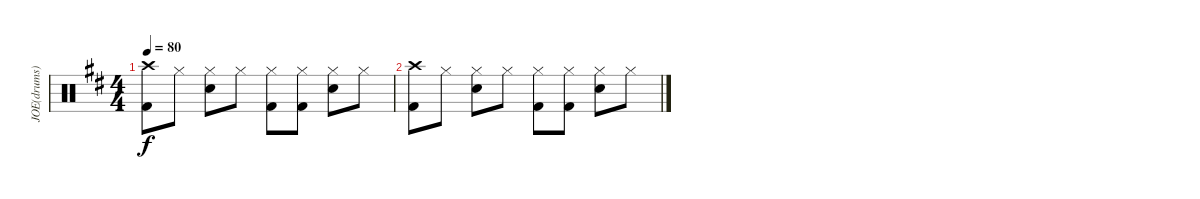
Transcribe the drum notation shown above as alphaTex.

\track ("JOE(drums)" "JOE(drums)") {instrument percussion}
\staff {score}
\articulation defaults
\ts (4 4)
\tempo 80
\clef neutral
\ks d
("Crash high (hit)" "Kick (hit) 2").8{dy f} "Hi-Hat (closed)".8 ("Hi-Hat (closed)" "Snare (hit) 2").8 "Hi-Hat (closed)".8 ("Hi-Hat (closed)" "Kick (hit) 2").8 ("Hi-Hat (closed)" "Kick (hit) 2").8 ("Hi-Hat (closed)" "Snare (hit) 2").8 "Hi-Hat (closed)".8 |
("Crash high (hit)" "Kick (hit) 2").8 "Hi-Hat (closed)".8 ("Hi-Hat (closed)" "Snare (hit) 2").8 "Hi-Hat (closed)".8 ("Hi-Hat (closed)" "Kick (hit) 2").8 ("Hi-Hat (closed)" "Kick (hit) 2").8 ("Hi-Hat (closed)" "Snare (hit) 2").8 "Hi-Hat (closed)".8
